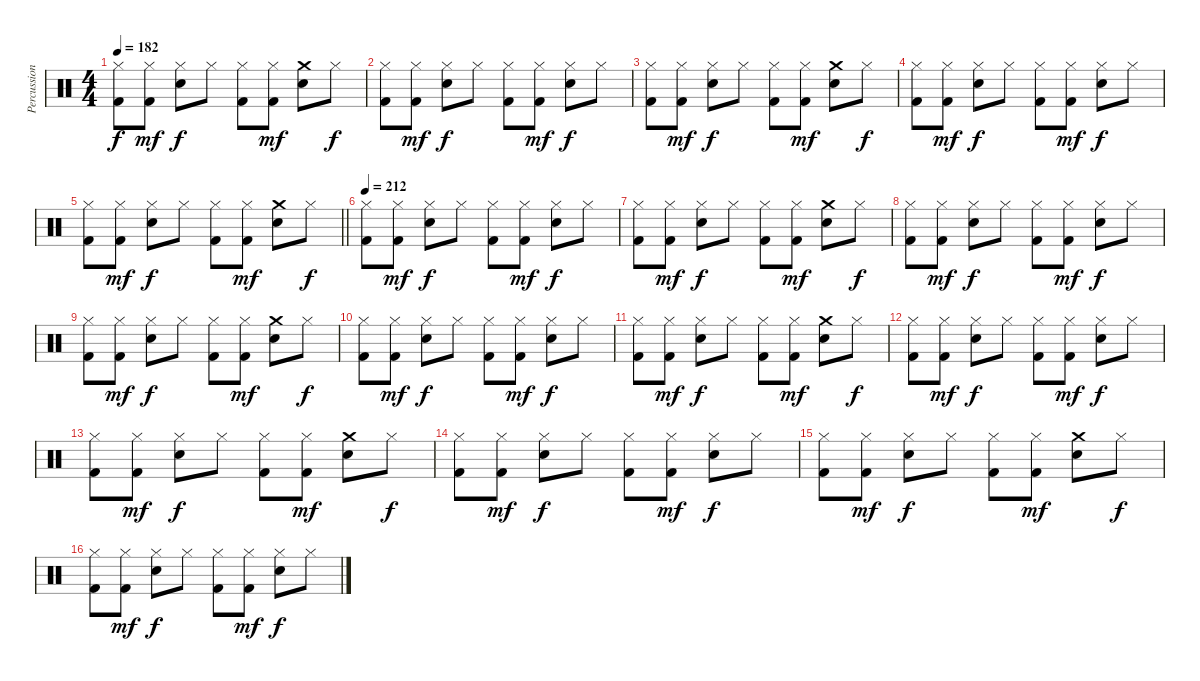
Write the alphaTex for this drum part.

\track ("Percussion" "Percussion") {instrument percussion}
\staff {score}
\articulation defaults
\ts (4 4)
\tempo 182
\clef neutral
\ks c
("Hi-Hat (closed)" "Kick (hit) 2").8{dy f} ("Hi-Hat (closed)" "Kick (hit) 2").8{dy mf} ("Hi-Hat (closed)" "Snare (hit) 2").8{dy f} "Hi-Hat (closed)".8 ("Hi-Hat (closed)" "Kick (hit) 2").8 ("Hi-Hat (closed)" "Kick (hit) 2").8{dy mf} ("Crash medium (hit)" "Snare (hit) 2").8 "Hi-Hat (closed)".8{dy f} |
("Hi-Hat (closed)" "Kick (hit) 2").8 ("Hi-Hat (closed)" "Kick (hit) 2").8{dy mf} ("Hi-Hat (closed)" "Snare (hit) 2").8{dy f} "Hi-Hat (closed)".8 ("Hi-Hat (closed)" "Kick (hit) 2").8 ("Hi-Hat (closed)" "Kick (hit) 2").8{dy mf} ("Hi-Hat (closed)" "Snare (hit) 2").8{dy f} "Hi-Hat (closed)".8 |
("Hi-Hat (closed)" "Kick (hit) 2").8 ("Hi-Hat (closed)" "Kick (hit) 2").8{dy mf} ("Hi-Hat (closed)" "Snare (hit) 2").8{dy f} "Hi-Hat (closed)".8 ("Hi-Hat (closed)" "Kick (hit) 2").8 ("Hi-Hat (closed)" "Kick (hit) 2").8{dy mf} ("Crash medium (hit)" "Snare (hit) 2").8 "Hi-Hat (closed)".8{dy f} |
("Hi-Hat (closed)" "Kick (hit) 2").8 ("Hi-Hat (closed)" "Kick (hit) 2").8{dy mf} ("Hi-Hat (closed)" "Snare (hit) 2").8{dy f} "Hi-Hat (closed)".8 ("Hi-Hat (closed)" "Kick (hit) 2").8 ("Hi-Hat (closed)" "Kick (hit) 2").8{dy mf} ("Hi-Hat (closed)" "Snare (hit) 2").8{dy f} "Hi-Hat (closed)".8 |
\barLineRight lightlight
("Hi-Hat (closed)" "Kick (hit) 2").8 ("Hi-Hat (closed)" "Kick (hit) 2").8{dy mf} ("Hi-Hat (closed)" "Snare (hit) 2").8{dy f} "Hi-Hat (closed)".8 ("Hi-Hat (closed)" "Kick (hit) 2").8 ("Hi-Hat (closed)" "Kick (hit) 2").8{dy mf} ("Crash medium (hit)" "Snare (hit) 2").8 "Hi-Hat (closed)".8{dy f} |
\tempo 212
("Hi-Hat (closed)" "Kick (hit) 2").8 ("Hi-Hat (closed)" "Kick (hit) 2").8{dy mf} ("Hi-Hat (closed)" "Snare (hit) 2").8{dy f} "Hi-Hat (closed)".8 ("Hi-Hat (closed)" "Kick (hit) 2").8 ("Hi-Hat (closed)" "Kick (hit) 2").8{dy mf} ("Hi-Hat (closed)" "Snare (hit) 2").8{dy f} "Hi-Hat (closed)".8 |
("Hi-Hat (closed)" "Kick (hit) 2").8 ("Hi-Hat (closed)" "Kick (hit) 2").8{dy mf} ("Hi-Hat (closed)" "Snare (hit) 2").8{dy f} "Hi-Hat (closed)".8 ("Hi-Hat (closed)" "Kick (hit) 2").8 ("Hi-Hat (closed)" "Kick (hit) 2").8{dy mf} ("Crash medium (hit)" "Snare (hit) 2").8 "Hi-Hat (closed)".8{dy f} |
("Hi-Hat (closed)" "Kick (hit) 2").8 ("Hi-Hat (closed)" "Kick (hit) 2").8{dy mf} ("Hi-Hat (closed)" "Snare (hit) 2").8{dy f} "Hi-Hat (closed)".8 ("Hi-Hat (closed)" "Kick (hit) 2").8 ("Hi-Hat (closed)" "Kick (hit) 2").8{dy mf} ("Hi-Hat (closed)" "Snare (hit) 2").8{dy f} "Hi-Hat (closed)".8 |
("Hi-Hat (closed)" "Kick (hit) 2").8 ("Hi-Hat (closed)" "Kick (hit) 2").8{dy mf} ("Hi-Hat (closed)" "Snare (hit) 2").8{dy f} "Hi-Hat (closed)".8 ("Hi-Hat (closed)" "Kick (hit) 2").8 ("Hi-Hat (closed)" "Kick (hit) 2").8{dy mf} ("Crash medium (hit)" "Snare (hit) 2").8 "Hi-Hat (closed)".8{dy f} |
("Hi-Hat (closed)" "Kick (hit) 2").8 ("Hi-Hat (closed)" "Kick (hit) 2").8{dy mf} ("Hi-Hat (closed)" "Snare (hit) 2").8{dy f} "Hi-Hat (closed)".8 ("Hi-Hat (closed)" "Kick (hit) 2").8 ("Hi-Hat (closed)" "Kick (hit) 2").8{dy mf} ("Hi-Hat (closed)" "Snare (hit) 2").8{dy f} "Hi-Hat (closed)".8 |
("Hi-Hat (closed)" "Kick (hit) 2").8 ("Hi-Hat (closed)" "Kick (hit) 2").8{dy mf} ("Hi-Hat (closed)" "Snare (hit) 2").8{dy f} "Hi-Hat (closed)".8 ("Hi-Hat (closed)" "Kick (hit) 2").8 ("Hi-Hat (closed)" "Kick (hit) 2").8{dy mf} ("Crash medium (hit)" "Snare (hit) 2").8 "Hi-Hat (closed)".8{dy f} |
("Hi-Hat (closed)" "Kick (hit) 2").8 ("Hi-Hat (closed)" "Kick (hit) 2").8{dy mf} ("Hi-Hat (closed)" "Snare (hit) 2").8{dy f} "Hi-Hat (closed)".8 ("Hi-Hat (closed)" "Kick (hit) 2").8 ("Hi-Hat (closed)" "Kick (hit) 2").8{dy mf} ("Hi-Hat (closed)" "Snare (hit) 2").8{dy f} "Hi-Hat (closed)".8 |
("Hi-Hat (closed)" "Kick (hit) 2").8 ("Hi-Hat (closed)" "Kick (hit) 2").8{dy mf} ("Hi-Hat (closed)" "Snare (hit) 2").8{dy f} "Hi-Hat (closed)".8 ("Hi-Hat (closed)" "Kick (hit) 2").8 ("Hi-Hat (closed)" "Kick (hit) 2").8{dy mf} ("Crash medium (hit)" "Snare (hit) 2").8 "Hi-Hat (closed)".8{dy f} |
("Hi-Hat (closed)" "Kick (hit) 2").8 ("Hi-Hat (closed)" "Kick (hit) 2").8{dy mf} ("Hi-Hat (closed)" "Snare (hit) 2").8{dy f} "Hi-Hat (closed)".8 ("Hi-Hat (closed)" "Kick (hit) 2").8 ("Hi-Hat (closed)" "Kick (hit) 2").8{dy mf} ("Hi-Hat (closed)" "Snare (hit) 2").8{dy f} "Hi-Hat (closed)".8 |
("Hi-Hat (closed)" "Kick (hit) 2").8 ("Hi-Hat (closed)" "Kick (hit) 2").8{dy mf} ("Hi-Hat (closed)" "Snare (hit) 2").8{dy f} "Hi-Hat (closed)".8 ("Hi-Hat (closed)" "Kick (hit) 2").8 ("Hi-Hat (closed)" "Kick (hit) 2").8{dy mf} ("Crash medium (hit)" "Snare (hit) 2").8 "Hi-Hat (closed)".8{dy f} |
("Hi-Hat (closed)" "Kick (hit) 2").8 ("Hi-Hat (closed)" "Kick (hit) 2").8{dy mf} ("Hi-Hat (closed)" "Snare (hit) 2").8{dy f} "Hi-Hat (closed)".8 ("Hi-Hat (closed)" "Kick (hit) 2").8 ("Hi-Hat (closed)" "Kick (hit) 2").8{dy mf} ("Hi-Hat (closed)" "Snare (hit) 2").8{dy f} "Hi-Hat (closed)".8
